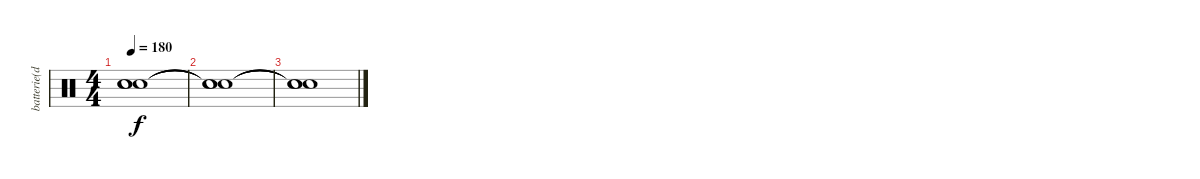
\track ("batterie(dave)" "batterie(d") {instrument percussion}
\staff {score}
\articulation defaults
\ts (4 4)
\tempo 180
\clef neutral
\ks c
("Snare (hit)"{t} "Snare (hit)"{t} "Snare (hit)"{t}).1{dy f} |
("Snare (hit)"{t} "Snare (hit)"{t} "Snare (hit)"{t}).1 |
("Snare (hit)"{t} "Snare (hit)"{t} "Snare (hit)"{t}).1
